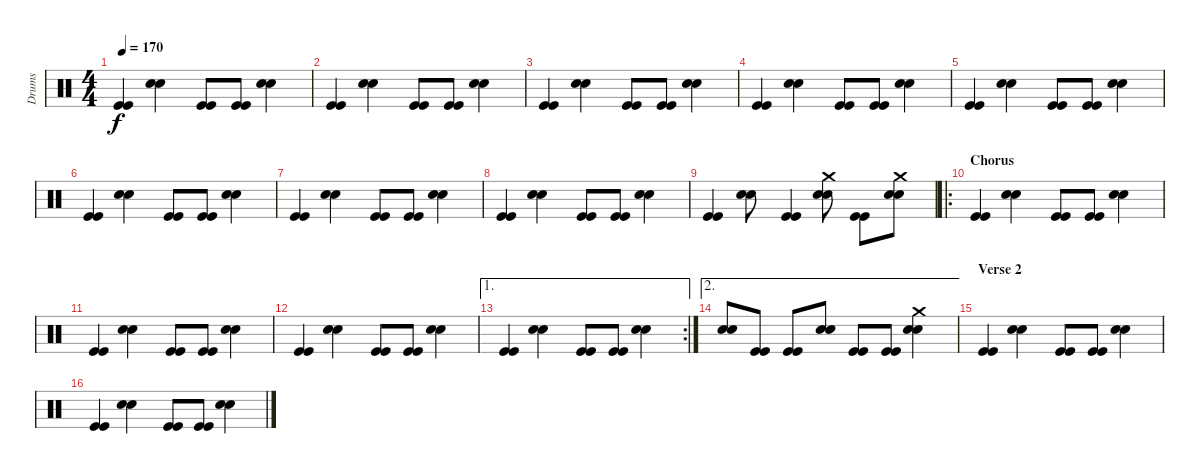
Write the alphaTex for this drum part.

\track ("Drums" "Drums") {instrument percussion}
\staff {score}
\articulation defaults
\ts (4 4)
\tempo 170
\clef neutral
\ks c
("Kick (hit)" "Kick (hit)").4{dy f} ("Snare (hit) 2" "Snare (hit) 2").4 ("Kick (hit)" "Kick (hit)").8 ("Kick (hit)" "Kick (hit)").8 ("Snare (hit) 2" "Snare (hit) 2").4 |
("Kick (hit)" "Kick (hit)").4 ("Snare (hit) 2" "Snare (hit) 2").4 ("Kick (hit)" "Kick (hit)").8 ("Kick (hit)" "Kick (hit)").8 ("Snare (hit) 2" "Snare (hit) 2").4 |
("Kick (hit)" "Kick (hit)").4 ("Snare (hit) 2" "Snare (hit) 2").4 ("Kick (hit)" "Kick (hit)").8 ("Kick (hit)" "Kick (hit)").8 ("Snare (hit) 2" "Snare (hit) 2").4 |
("Kick (hit)" "Kick (hit)").4 ("Snare (hit) 2" "Snare (hit) 2").4 ("Kick (hit)" "Kick (hit)").8 ("Kick (hit)" "Kick (hit)").8 ("Snare (hit) 2" "Snare (hit) 2").4 |
("Kick (hit)" "Kick (hit)").4 ("Snare (hit) 2" "Snare (hit) 2").4 ("Kick (hit)" "Kick (hit)").8 ("Kick (hit)" "Kick (hit)").8 ("Snare (hit) 2" "Snare (hit) 2").4 |
("Kick (hit)" "Kick (hit)").4 ("Snare (hit) 2" "Snare (hit) 2").4 ("Kick (hit)" "Kick (hit)").8 ("Kick (hit)" "Kick (hit)").8 ("Snare (hit) 2" "Snare (hit) 2").4 |
("Kick (hit)" "Kick (hit)").4 ("Snare (hit) 2" "Snare (hit) 2").4 ("Kick (hit)" "Kick (hit)").8 ("Kick (hit)" "Kick (hit)").8 ("Snare (hit) 2" "Snare (hit) 2").4 |
("Kick (hit)" "Kick (hit)").4 ("Snare (hit) 2" "Snare (hit) 2").4 ("Kick (hit)" "Kick (hit)").8 ("Kick (hit)" "Kick (hit)").8 ("Snare (hit) 2" "Snare (hit) 2").4 |
("Kick (hit)" "Kick (hit)").4 ("Snare (hit) 2" "Snare (hit) 2").8 ("Kick (hit)" "Kick (hit)").4 ("Crash medium (hit)" "Snare (hit) 2" "Snare (hit) 2").8 ("Kick (hit)" "Kick (hit)").8 ("Crash medium (hit)" "Snare (hit) 2" "Snare (hit) 2").8 |
\ro
\section ("" "Chorus")
("Kick (hit)" "Kick (hit)").4 ("Snare (hit) 2" "Snare (hit) 2").4 ("Kick (hit)" "Kick (hit)").8 ("Kick (hit)" "Kick (hit)").8 ("Snare (hit) 2" "Snare (hit) 2").4 |
("Kick (hit)" "Kick (hit)").4 ("Snare (hit) 2" "Snare (hit) 2").4 ("Kick (hit)" "Kick (hit)").8 ("Kick (hit)" "Kick (hit)").8 ("Snare (hit) 2" "Snare (hit) 2").4 |
("Kick (hit)" "Kick (hit)").4 ("Snare (hit) 2" "Snare (hit) 2").4 ("Kick (hit)" "Kick (hit)").8 ("Kick (hit)" "Kick (hit)").8 ("Snare (hit) 2" "Snare (hit) 2").4 |
\ae 1
\rc 2
("Kick (hit)" "Kick (hit)").4 ("Snare (hit) 2" "Snare (hit) 2").4 ("Kick (hit)" "Kick (hit)").8 ("Kick (hit)" "Kick (hit)").8 ("Snare (hit) 2" "Snare (hit) 2").4 |
\ae 2
("Snare (hit) 2" "Snare (hit) 2").8 ("Kick (hit)" "Kick (hit)").8 ("Kick (hit)" "Kick (hit)").8 ("Snare (hit) 2" "Snare (hit) 2").8 ("Kick (hit)" "Kick (hit)").8 ("Kick (hit)" "Kick (hit)").8 ("Crash medium (hit)" "Snare (hit) 2" "Snare (hit) 2").4 |
\section ("" "Verse 2")
("Kick (hit)" "Kick (hit)").4 ("Snare (hit) 2" "Snare (hit) 2").4 ("Kick (hit)" "Kick (hit)").8 ("Kick (hit)" "Kick (hit)").8 ("Snare (hit) 2" "Snare (hit) 2").4 |
("Kick (hit)" "Kick (hit)").4 ("Snare (hit) 2" "Snare (hit) 2").4 ("Kick (hit)" "Kick (hit)").8 ("Kick (hit)" "Kick (hit)").8 ("Snare (hit) 2" "Snare (hit) 2").4
